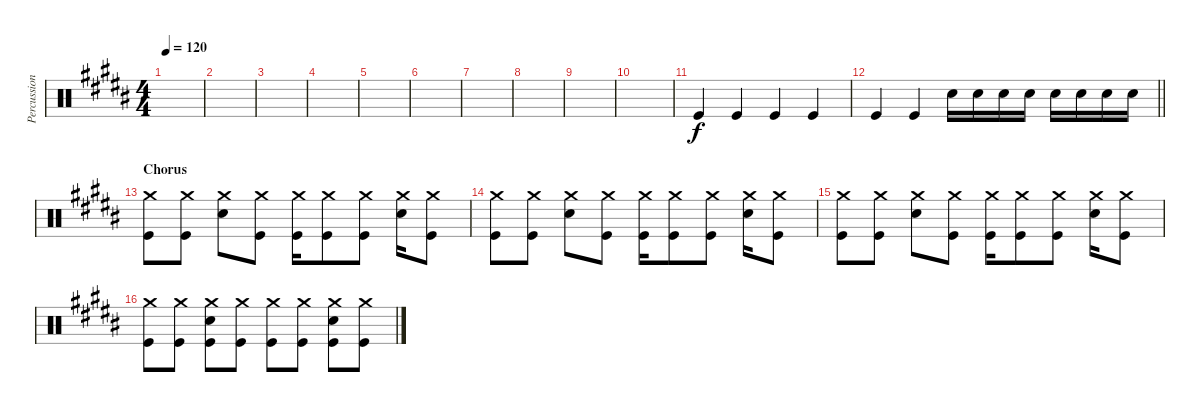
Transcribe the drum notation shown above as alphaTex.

\track ("Percussion" "Percussion") {instrument percussion}
\staff {score}
\articulation defaults
\ts (4 4)
\tempo 120
\clef neutral
\ks b
|
|
|
|
|
|
|
|
|
|
"Kick (hit)".4 "Kick (hit)".4 "Kick (hit)".4 "Kick (hit)".4 |
\barLineRight lightlight "Kick (hit)".4 "Kick (hit)".4 "Electric Snare (hit)".16 "Electric Snare (hit)".16 "Electric Snare (hit)".16 "Electric Snare (hit)".16 "Electric Snare (hit)".16 "Electric Snare (hit)".16 "Electric Snare (hit)".16 "Electric Snare (hit)".16
|
\section ("" "Chorus")
("Crash medium (hit)" "Kick (hit)").8 ("Crash medium (hit)" "Kick (hit)").8 ("Crash medium (hit)" "Electric Snare (hit)").8 ("Kick (hit)" "Crash medium (hit)").8 ("Kick (hit)" "Crash medium (hit)").16 ("Kick (hit)" "Crash medium (hit)").8 ("Kick (hit)" "Crash medium (hit)").8 ("Electric Snare (hit)" "Crash medium (hit)").16 ("Kick (hit)" "Crash medium (hit)").8 |
("Crash medium (hit)" "Kick (hit)").8 ("Crash medium (hit)" "Kick (hit)").8 ("Crash medium (hit)" "Electric Snare (hit)").8 ("Kick (hit)" "Crash medium (hit)").8 ("Kick (hit)" "Crash medium (hit)").16 ("Kick (hit)" "Crash medium (hit)").8 ("Kick (hit)" "Crash medium (hit)").8 ("Electric Snare (hit)" "Crash medium (hit)").16 ("Kick (hit)" "Crash medium (hit)").8 |
("Crash medium (hit)" "Kick (hit)").8 ("Crash medium (hit)" "Kick (hit)").8 ("Crash medium (hit)" "Electric Snare (hit)").8 ("Kick (hit)" "Crash medium (hit)").8 ("Kick (hit)" "Crash medium (hit)").16 ("Kick (hit)" "Crash medium (hit)").8 ("Kick (hit)" "Crash medium (hit)").8 ("Electric Snare (hit)" "Crash medium (hit)").16 ("Kick (hit)" "Crash medium (hit)").8 |
("Crash medium (hit)" "Kick (hit)").8 ("Crash medium (hit)" "Kick (hit)").8 ("Electric Snare (hit)" "Crash medium (hit)" "Kick (hit)").8 ("Crash medium (hit)" "Kick (hit)").8 ("Crash medium (hit)" "Kick (hit)").8 ("Crash medium (hit)" "Kick (hit)").8 ("Electric Snare (hit)" "Crash medium (hit)" "Kick (hit)").8 ("Crash medium (hit)" "Kick (hit)").8
